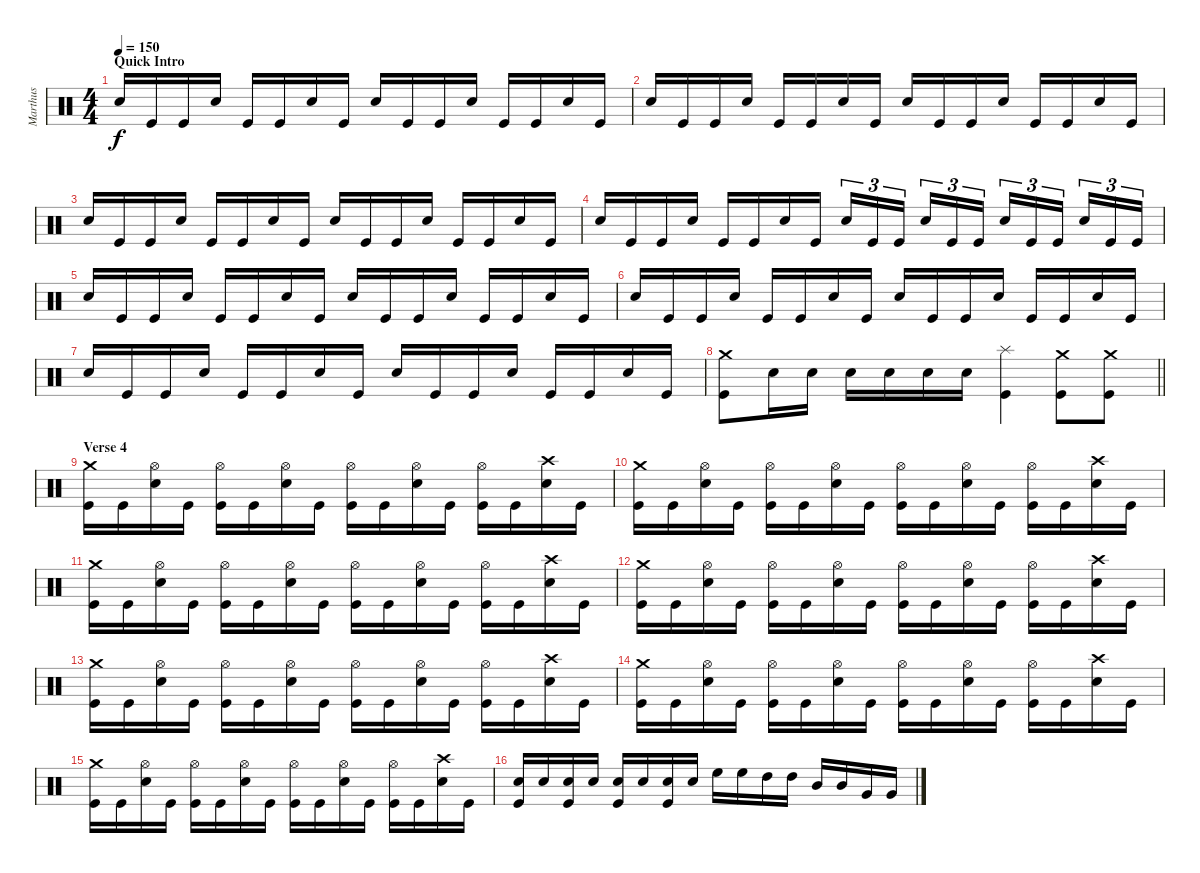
\track ("Marthus" "Marthus") {instrument percussion}
\staff {score}
\articulation defaults
\ts (4 4)
\section ("" "Quick Intro")
\tempo 150
\clef neutral
\ks c "Snare (hit) 2".16{dy f} "Kick (hit)".16 "Kick (hit)".16 "Snare (hit) 2".16 "Kick (hit)".16 "Kick (hit)".16 "Snare (hit) 2".16 "Kick (hit)".16 "Snare (hit) 2".16 "Kick (hit)".16 "Kick (hit)".16 "Snare (hit) 2".16 "Kick (hit)".16 "Kick (hit)".16 "Snare (hit) 2".16 "Kick (hit)".16
|
"Snare (hit) 2".16 "Kick (hit)".16 "Kick (hit)".16 "Snare (hit) 2".16 "Kick (hit)".16 "Kick (hit)".16 "Snare (hit) 2".16 "Kick (hit)".16 "Snare (hit) 2".16 "Kick (hit)".16 "Kick (hit)".16 "Snare (hit) 2".16 "Kick (hit)".16 "Kick (hit)".16 "Snare (hit) 2".16 "Kick (hit)".16 |
"Snare (hit) 2".16 "Kick (hit)".16 "Kick (hit)".16 "Snare (hit) 2".16 "Kick (hit)".16 "Kick (hit)".16 "Snare (hit) 2".16 "Kick (hit)".16 "Snare (hit) 2".16 "Kick (hit)".16 "Kick (hit)".16 "Snare (hit) 2".16 "Kick (hit)".16 "Kick (hit)".16 "Snare (hit) 2".16 "Kick (hit)".16 |
"Snare (hit) 2".16 "Kick (hit)".16 "Kick (hit)".16 "Snare (hit) 2".16 "Kick (hit)".16 "Kick (hit)".16 "Snare (hit) 2".16 "Kick (hit)".16 "Snare (hit) 2".16{tu (3 2)} "Kick (hit)".16{tu (3 2)} "Kick (hit)".16{tu (3 2) beam splitsecondary} "Snare (hit) 2".16{tu (3 2)} "Kick (hit)".16{tu (3 2)} "Kick (hit)".16{tu (3 2)} "Snare (hit) 2".16{tu (3 2)} "Kick (hit)".16{tu (3 2)} "Kick (hit)".16{tu (3 2) beam splitsecondary} "Snare (hit) 2".16{tu (3 2)} "Kick (hit)".16{tu (3 2)} "Kick (hit)".16{tu (3 2)} |
"Snare (hit) 2".16 "Kick (hit)".16 "Kick (hit)".16 "Snare (hit) 2".16 "Kick (hit)".16 "Kick (hit)".16 "Snare (hit) 2".16 "Kick (hit)".16 "Snare (hit) 2".16 "Kick (hit)".16 "Kick (hit)".16 "Snare (hit) 2".16 "Kick (hit)".16 "Kick (hit)".16 "Snare (hit) 2".16 "Kick (hit)".16 |
"Snare (hit) 2".16 "Kick (hit)".16 "Kick (hit)".16 "Snare (hit) 2".16 "Kick (hit)".16 "Kick (hit)".16 "Snare (hit) 2".16 "Kick (hit)".16 "Snare (hit) 2".16 "Kick (hit)".16 "Kick (hit)".16 "Snare (hit) 2".16 "Kick (hit)".16 "Kick (hit)".16 "Snare (hit) 2".16 "Kick (hit)".16 |
"Snare (hit) 2".16 "Kick (hit)".16 "Kick (hit)".16 "Snare (hit) 2".16 "Kick (hit)".16 "Kick (hit)".16 "Snare (hit) 2".16 "Kick (hit)".16 "Snare (hit) 2".16 "Kick (hit)".16 "Kick (hit)".16 "Snare (hit) 2".16 "Kick (hit)".16 "Kick (hit)".16 "Snare (hit) 2".16 "Kick (hit)".16 |
\barLineRight lightlight
("Crash medium (hit)" "Kick (hit)").8 "Snare (hit) 2".16 "Snare (hit) 2".16 "Snare (hit) 2".16 "Snare (hit) 2".16 "Snare (hit) 2".16 "Snare (hit) 2".16 ("Splash (hit)" "Kick (hit)").4 ("Crash medium (hit)" "Kick (hit)").8 ("Crash medium (hit)" "Kick (hit)").8 |
\section ("" "Verse 4")
("Crash medium (hit)" "Kick (hit)").16 "Kick (hit)".16 ("Hi-Hat (open)" "Snare (hit) 2").16 "Kick (hit)".16 ("Hi-Hat (open)" "Kick (hit)").16 "Kick (hit)".16 ("Hi-Hat (open)" "Snare (hit) 2").16 "Kick (hit)".16 ("Hi-Hat (open)" "Kick (hit)").16 "Kick (hit)".16 ("Hi-Hat (open)" "Snare (hit) 2").16 "Kick (hit)".16 ("Hi-Hat (open)" "Kick (hit)").16 "Kick (hit)".16 ("Crash high (hit)" "Snare (hit) 2").16 "Kick (hit)".16 |
("Crash medium (hit)" "Kick (hit)").16 "Kick (hit)".16 ("Hi-Hat (open)" "Snare (hit) 2").16 "Kick (hit)".16 ("Hi-Hat (open)" "Kick (hit)").16 "Kick (hit)".16 ("Hi-Hat (open)" "Snare (hit) 2").16 "Kick (hit)".16 ("Hi-Hat (open)" "Kick (hit)").16 "Kick (hit)".16 ("Hi-Hat (open)" "Snare (hit) 2").16 "Kick (hit)".16 ("Hi-Hat (open)" "Kick (hit)").16 "Kick (hit)".16 ("Crash high (hit)" "Snare (hit) 2").16 "Kick (hit)".16 |
("Crash medium (hit)" "Kick (hit)").16 "Kick (hit)".16 ("Hi-Hat (open)" "Snare (hit) 2").16 "Kick (hit)".16 ("Hi-Hat (open)" "Kick (hit)").16 "Kick (hit)".16 ("Hi-Hat (open)" "Snare (hit) 2").16 "Kick (hit)".16 ("Hi-Hat (open)" "Kick (hit)").16 "Kick (hit)".16 ("Hi-Hat (open)" "Snare (hit) 2").16 "Kick (hit)".16 ("Hi-Hat (open)" "Kick (hit)").16 "Kick (hit)".16 ("Crash high (hit)" "Snare (hit) 2").16 "Kick (hit)".16 |
("Crash medium (hit)" "Kick (hit)").16 "Kick (hit)".16 ("Hi-Hat (open)" "Snare (hit) 2").16 "Kick (hit)".16 ("Hi-Hat (open)" "Kick (hit)").16 "Kick (hit)".16 ("Hi-Hat (open)" "Snare (hit) 2").16 "Kick (hit)".16 ("Hi-Hat (open)" "Kick (hit)").16 "Kick (hit)".16 ("Hi-Hat (open)" "Snare (hit) 2").16 "Kick (hit)".16 ("Hi-Hat (open)" "Kick (hit)").16 "Kick (hit)".16 ("Crash high (hit)" "Snare (hit) 2").16 "Kick (hit)".16 |
("Crash medium (hit)" "Kick (hit)").16 "Kick (hit)".16 ("Hi-Hat (open)" "Snare (hit) 2").16 "Kick (hit)".16 ("Hi-Hat (open)" "Kick (hit)").16 "Kick (hit)".16 ("Hi-Hat (open)" "Snare (hit) 2").16 "Kick (hit)".16 ("Hi-Hat (open)" "Kick (hit)").16 "Kick (hit)".16 ("Hi-Hat (open)" "Snare (hit) 2").16 "Kick (hit)".16 ("Hi-Hat (open)" "Kick (hit)").16 "Kick (hit)".16 ("Crash high (hit)" "Snare (hit) 2").16 "Kick (hit)".16 |
("Crash medium (hit)" "Kick (hit)").16 "Kick (hit)".16 ("Hi-Hat (open)" "Snare (hit) 2").16 "Kick (hit)".16 ("Hi-Hat (open)" "Kick (hit)").16 "Kick (hit)".16 ("Hi-Hat (open)" "Snare (hit) 2").16 "Kick (hit)".16 ("Hi-Hat (open)" "Kick (hit)").16 "Kick (hit)".16 ("Hi-Hat (open)" "Snare (hit) 2").16 "Kick (hit)".16 ("Hi-Hat (open)" "Kick (hit)").16 "Kick (hit)".16 ("Crash high (hit)" "Snare (hit) 2").16 "Kick (hit)".16 |
("Crash medium (hit)" "Kick (hit)").16 "Kick (hit)".16 ("Hi-Hat (open)" "Snare (hit) 2").16 "Kick (hit)".16 ("Hi-Hat (open)" "Kick (hit)").16 "Kick (hit)".16 ("Hi-Hat (open)" "Snare (hit) 2").16 "Kick (hit)".16 ("Hi-Hat (open)" "Kick (hit)").16 "Kick (hit)".16 ("Hi-Hat (open)" "Snare (hit) 2").16 "Kick (hit)".16 ("Hi-Hat (open)" "Kick (hit)").16 "Kick (hit)".16 ("Crash high (hit)" "Snare (hit) 2").16 "Kick (hit)".16 |
("Snare (hit) 2" "Kick (hit)").16 "Snare (hit) 2".16 ("Snare (hit) 2" "Kick (hit)").16 "Snare (hit) 2".16 ("Snare (hit) 2" "Kick (hit)").16 "Snare (hit) 2".16 ("Snare (hit) 2" "Kick (hit)").16 "Snare (hit) 2".16 "High Floor Tom (hit)".16 "High Floor Tom (hit)".16 "High Tom (hit)".16 "High Tom (hit)".16 "Mid Tom (hit)".16 "Mid Tom (hit)".16 "Very Low Tom (hit)".16 "Very Low Tom (hit)".16
